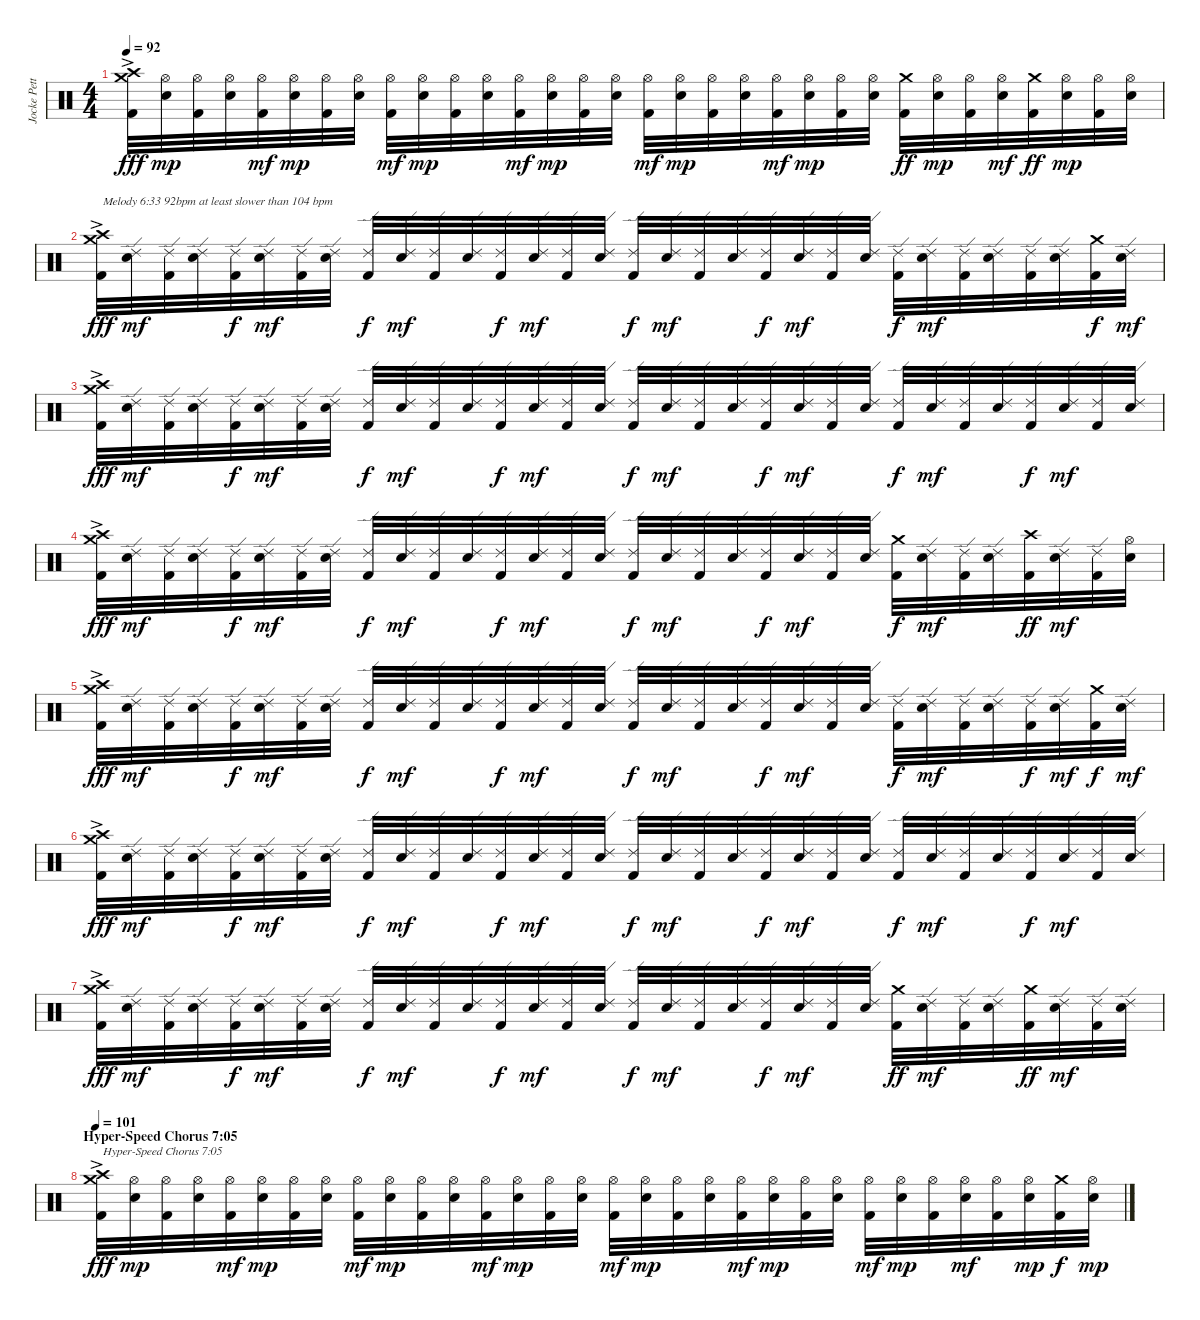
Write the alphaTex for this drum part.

\track ("Jocke Pettersson" "Jocke Pett") {instrument percussion}
\staff {score}
\articulation defaults
\ts (4 4)
\tempo 92
\clef neutral
\ks c
("Kick (hit) 2" "Crash high (hit)"{ac} "Crash medium (hit)"{ac}).32{dy fff} ("Electric Snare (hit)" "Hi-Hat (open)").32{dy mp} ("Kick (hit) 2" "Hi-Hat (open)").32 ("Electric Snare (hit)" "Hi-Hat (open)").32 ("Kick (hit) 2" "Hi-Hat (open)").32{dy mf} ("Electric Snare (hit)" "Hi-Hat (open)").32{dy mp} ("Kick (hit) 2" "Hi-Hat (open)").32 ("Electric Snare (hit)" "Hi-Hat (open)").32 ("Kick (hit) 2" "Hi-Hat (open)").32{dy mf} ("Electric Snare (hit)" "Hi-Hat (open)").32{dy mp} ("Kick (hit) 2" "Hi-Hat (open)").32 ("Electric Snare (hit)" "Hi-Hat (open)").32 ("Kick (hit) 2" "Hi-Hat (open)").32{dy mf} ("Electric Snare (hit)" "Hi-Hat (open)").32{dy mp} ("Kick (hit) 2" "Hi-Hat (open)").32 ("Electric Snare (hit)" "Hi-Hat (open)").32 ("Kick (hit) 2" "Hi-Hat (open)").32{dy mf} ("Electric Snare (hit)" "Hi-Hat (open)").32{dy mp} ("Kick (hit) 2" "Hi-Hat (open)").32 ("Electric Snare (hit)" "Hi-Hat (open)").32 ("Kick (hit) 2" "Hi-Hat (open)").32{dy mf} ("Electric Snare (hit)" "Hi-Hat (open)").32{dy mp} ("Kick (hit) 2" "Hi-Hat (open)").32 ("Electric Snare (hit)" "Hi-Hat (open)").32 ("Kick (hit) 2" "Crash medium (hit)").32{dy ff} ("Electric Snare (hit)" "Hi-Hat (open)").32{dy mp} ("Kick (hit) 2" "Hi-Hat (open)").32 ("Electric Snare (hit)" "Hi-Hat (open)").32{dy mf} ("Kick (hit) 2" "Crash medium (hit)").32{dy ff} ("Electric Snare (hit)" "Hi-Hat (open)").32{dy mp} ("Kick (hit) 2" "Hi-Hat (open)").32 ("Electric Snare (hit)" "Hi-Hat (open)").32 |
("Kick (hit) 2" "Crash high (hit)"{ac} "Crash medium (hit)"{ac}).32{txt "Melody 6:33 92bpm at least slower than 104 bpm" dy fff} ("Electric Snare (hit)" "Ride (edge) 2").32{dy mf} ("Kick (hit) 2" "Ride (edge) 2").32 ("Electric Snare (hit)" "Ride (edge) 2").32 ("Kick (hit) 2" "Ride (edge) 2").32{dy f} ("Electric Snare (hit)" "Ride (edge) 2").32{dy mf} ("Kick (hit) 2" "Ride (edge) 2").32 ("Electric Snare (hit)" "Ride (edge) 2").32 ("Kick (hit) 2" "Ride (edge) 2").32{dy f} ("Electric Snare (hit)" "Ride (edge) 2").32{dy mf} ("Kick (hit) 2" "Ride (edge) 2").32 ("Electric Snare (hit)" "Ride (edge) 2").32 ("Kick (hit) 2" "Ride (edge) 2").32{dy f} ("Electric Snare (hit)" "Ride (edge) 2").32{dy mf} ("Kick (hit) 2" "Ride (edge) 2").32 ("Electric Snare (hit)" "Ride (edge) 2").32 ("Kick (hit) 2" "Ride (edge) 2").32{dy f} ("Electric Snare (hit)" "Ride (edge) 2").32{dy mf} ("Kick (hit) 2" "Ride (edge) 2").32 ("Electric Snare (hit)" "Ride (edge) 2").32 ("Kick (hit) 2" "Ride (edge) 2").32{dy f} ("Electric Snare (hit)" "Ride (edge) 2").32{dy mf} ("Kick (hit) 2" "Ride (edge) 2").32 ("Electric Snare (hit)" "Ride (edge) 2").32 ("Kick (hit) 2" "Ride (edge) 2").32{dy f} ("Electric Snare (hit)" "Ride (edge) 2").32{dy mf} ("Kick (hit) 2" "Ride (edge) 2").32 ("Electric Snare (hit)" "Ride (edge) 2").32 ("Kick (hit) 2" "Ride (edge) 2").32 ("Electric Snare (hit)" "Ride (edge) 2").32 ("Kick (hit) 2" "Crash medium (hit)").32{dy f} ("Electric Snare (hit)" "Ride (edge) 2").32{dy mf} |
("Kick (hit) 2" "Crash high (hit)"{ac} "Crash medium (hit)"{ac}).32{dy fff} ("Electric Snare (hit)" "Ride (edge) 2").32{dy mf} ("Kick (hit) 2" "Ride (edge) 2").32 ("Electric Snare (hit)" "Ride (edge) 2").32 ("Kick (hit) 2" "Ride (edge) 2").32{dy f} ("Electric Snare (hit)" "Ride (edge) 2").32{dy mf} ("Kick (hit) 2" "Ride (edge) 2").32 ("Electric Snare (hit)" "Ride (edge) 2").32 ("Kick (hit) 2" "Ride (edge) 2").32{dy f} ("Electric Snare (hit)" "Ride (edge) 2").32{dy mf} ("Kick (hit) 2" "Ride (edge) 2").32 ("Electric Snare (hit)" "Ride (edge) 2").32 ("Kick (hit) 2" "Ride (edge) 2").32{dy f} ("Electric Snare (hit)" "Ride (edge) 2").32{dy mf} ("Kick (hit) 2" "Ride (edge) 2").32 ("Electric Snare (hit)" "Ride (edge) 2").32 ("Kick (hit) 2" "Ride (edge) 2").32{dy f} ("Electric Snare (hit)" "Ride (edge) 2").32{dy mf} ("Kick (hit) 2" "Ride (edge) 2").32 ("Electric Snare (hit)" "Ride (edge) 2").32 ("Kick (hit) 2" "Ride (edge) 2").32{dy f} ("Electric Snare (hit)" "Ride (edge) 2").32{dy mf} ("Kick (hit) 2" "Ride (edge) 2").32 ("Electric Snare (hit)" "Ride (edge) 2").32 ("Kick (hit) 2" "Ride (edge) 2").32{dy f} ("Electric Snare (hit)" "Ride (edge) 2").32{dy mf} ("Kick (hit) 2" "Ride (edge) 2").32 ("Electric Snare (hit)" "Ride (edge) 2").32 ("Kick (hit) 2" "Ride (edge) 2").32{dy f} ("Electric Snare (hit)" "Ride (edge) 2").32{dy mf} ("Kick (hit) 2" "Ride (edge) 2").32 ("Electric Snare (hit)" "Ride (edge) 2").32 |
("Kick (hit) 2" "Crash high (hit)"{ac} "Crash medium (hit)"{ac}).32{dy fff} ("Electric Snare (hit)" "Ride (edge) 2").32{dy mf} ("Kick (hit) 2" "Ride (edge) 2").32 ("Electric Snare (hit)" "Ride (edge) 2").32 ("Kick (hit) 2" "Ride (edge) 2").32{dy f} ("Electric Snare (hit)" "Ride (edge) 2").32{dy mf} ("Kick (hit) 2" "Ride (edge) 2").32 ("Electric Snare (hit)" "Ride (edge) 2").32 ("Kick (hit) 2" "Ride (edge) 2").32{dy f} ("Electric Snare (hit)" "Ride (edge) 2").32{dy mf} ("Kick (hit) 2" "Ride (edge) 2").32 ("Electric Snare (hit)" "Ride (edge) 2").32 ("Kick (hit) 2" "Ride (edge) 2").32{dy f} ("Electric Snare (hit)" "Ride (edge) 2").32{dy mf} ("Kick (hit) 2" "Ride (edge) 2").32 ("Electric Snare (hit)" "Ride (edge) 2").32 ("Kick (hit) 2" "Ride (edge) 2").32{dy f} ("Electric Snare (hit)" "Ride (edge) 2").32{dy mf} ("Kick (hit) 2" "Ride (edge) 2").32 ("Electric Snare (hit)" "Ride (edge) 2").32 ("Kick (hit) 2" "Ride (edge) 2").32{dy f} ("Electric Snare (hit)" "Ride (edge) 2").32{dy mf} ("Kick (hit) 2" "Ride (edge) 2").32 ("Electric Snare (hit)" "Ride (edge) 2").32 ("Kick (hit) 2" "Crash medium (hit)").32{dy f} ("Electric Snare (hit)" "Ride (edge) 2").32{dy mf} ("Kick (hit) 2" "Ride (edge) 2").32 ("Electric Snare (hit)" "Ride (edge) 2").32 ("Kick (hit) 2" "Crash high (hit)").32{dy ff} ("Electric Snare (hit)" "Ride (edge) 2").32{dy mf} ("Kick (hit) 2" "Ride (edge) 2").32 ("Electric Snare (hit)" "Hi-Hat (open)").32 |
("Kick (hit) 2" "Crash high (hit)"{ac} "Crash medium (hit)"{ac}).32{dy fff} ("Electric Snare (hit)" "Ride (edge) 2").32{dy mf} ("Kick (hit) 2" "Ride (edge) 2").32 ("Electric Snare (hit)" "Ride (edge) 2").32 ("Kick (hit) 2" "Ride (edge) 2").32{dy f} ("Electric Snare (hit)" "Ride (edge) 2").32{dy mf} ("Kick (hit) 2" "Ride (edge) 2").32 ("Electric Snare (hit)" "Ride (edge) 2").32 ("Kick (hit) 2" "Ride (edge) 2").32{dy f} ("Electric Snare (hit)" "Ride (edge) 2").32{dy mf} ("Kick (hit) 2" "Ride (edge) 2").32 ("Electric Snare (hit)" "Ride (edge) 2").32 ("Kick (hit) 2" "Ride (edge) 2").32{dy f} ("Electric Snare (hit)" "Ride (edge) 2").32{dy mf} ("Kick (hit) 2" "Ride (edge) 2").32 ("Electric Snare (hit)" "Ride (edge) 2").32 ("Kick (hit) 2" "Ride (edge) 2").32{dy f} ("Electric Snare (hit)" "Ride (edge) 2").32{dy mf} ("Kick (hit) 2" "Ride (edge) 2").32 ("Electric Snare (hit)" "Ride (edge) 2").32 ("Kick (hit) 2" "Ride (edge) 2").32{dy f} ("Electric Snare (hit)" "Ride (edge) 2").32{dy mf} ("Kick (hit) 2" "Ride (edge) 2").32 ("Electric Snare (hit)" "Ride (edge) 2").32 ("Kick (hit) 2" "Ride (edge) 2").32{dy f} ("Electric Snare (hit)" "Ride (edge) 2").32{dy mf} ("Kick (hit) 2" "Ride (edge) 2").32 ("Electric Snare (hit)" "Ride (edge) 2").32 ("Kick (hit) 2" "Ride (edge) 2").32{dy f} ("Electric Snare (hit)" "Ride (edge) 2").32{dy mf} ("Kick (hit) 2" "Crash medium (hit)").32{dy f} ("Electric Snare (hit)" "Ride (edge) 2").32{dy mf} |
("Kick (hit) 2" "Crash high (hit)"{ac} "Crash medium (hit)"{ac}).32{dy fff} ("Electric Snare (hit)" "Ride (edge) 2").32{dy mf} ("Kick (hit) 2" "Ride (edge) 2").32 ("Electric Snare (hit)" "Ride (edge) 2").32 ("Kick (hit) 2" "Ride (edge) 2").32{dy f} ("Electric Snare (hit)" "Ride (edge) 2").32{dy mf} ("Kick (hit) 2" "Ride (edge) 2").32 ("Electric Snare (hit)" "Ride (edge) 2").32 ("Kick (hit) 2" "Ride (edge) 2").32{dy f} ("Electric Snare (hit)" "Ride (edge) 2").32{dy mf} ("Kick (hit) 2" "Ride (edge) 2").32 ("Electric Snare (hit)" "Ride (edge) 2").32 ("Kick (hit) 2" "Ride (edge) 2").32{dy f} ("Electric Snare (hit)" "Ride (edge) 2").32{dy mf} ("Kick (hit) 2" "Ride (edge) 2").32 ("Electric Snare (hit)" "Ride (edge) 2").32 ("Kick (hit) 2" "Ride (edge) 2").32{dy f} ("Electric Snare (hit)" "Ride (edge) 2").32{dy mf} ("Kick (hit) 2" "Ride (edge) 2").32 ("Electric Snare (hit)" "Ride (edge) 2").32 ("Kick (hit) 2" "Ride (edge) 2").32{dy f} ("Electric Snare (hit)" "Ride (edge) 2").32{dy mf} ("Kick (hit) 2" "Ride (edge) 2").32 ("Electric Snare (hit)" "Ride (edge) 2").32 ("Kick (hit) 2" "Ride (edge) 2").32{dy f} ("Electric Snare (hit)" "Ride (edge) 2").32{dy mf} ("Kick (hit) 2" "Ride (edge) 2").32 ("Electric Snare (hit)" "Ride (edge) 2").32 ("Kick (hit) 2" "Ride (edge) 2").32{dy f} ("Electric Snare (hit)" "Ride (edge) 2").32{dy mf} ("Kick (hit) 2" "Ride (edge) 2").32 ("Electric Snare (hit)" "Ride (edge) 2").32 |
("Kick (hit) 2" "Crash high (hit)"{ac} "Crash medium (hit)"{ac}).32{dy fff} ("Electric Snare (hit)" "Ride (edge) 2").32{dy mf} ("Kick (hit) 2" "Ride (edge) 2").32 ("Electric Snare (hit)" "Ride (edge) 2").32 ("Kick (hit) 2" "Ride (edge) 2").32{dy f} ("Electric Snare (hit)" "Ride (edge) 2").32{dy mf} ("Kick (hit) 2" "Ride (edge) 2").32 ("Electric Snare (hit)" "Ride (edge) 2").32 ("Kick (hit) 2" "Ride (edge) 2").32{dy f} ("Electric Snare (hit)" "Ride (edge) 2").32{dy mf} ("Kick (hit) 2" "Ride (edge) 2").32 ("Electric Snare (hit)" "Ride (edge) 2").32 ("Kick (hit) 2" "Ride (edge) 2").32{dy f} ("Electric Snare (hit)" "Ride (edge) 2").32{dy mf} ("Kick (hit) 2" "Ride (edge) 2").32 ("Electric Snare (hit)" "Ride (edge) 2").32 ("Kick (hit) 2" "Ride (edge) 2").32{dy f} ("Electric Snare (hit)" "Ride (edge) 2").32{dy mf} ("Kick (hit) 2" "Ride (edge) 2").32 ("Electric Snare (hit)" "Ride (edge) 2").32 ("Kick (hit) 2" "Ride (edge) 2").32{dy f} ("Electric Snare (hit)" "Ride (edge) 2").32{dy mf} ("Kick (hit) 2" "Ride (edge) 2").32 ("Electric Snare (hit)" "Ride (edge) 2").32 ("Kick (hit) 2" "Crash medium (hit)").32{dy ff} ("Electric Snare (hit)" "Ride (edge) 2").32{dy mf} ("Kick (hit) 2" "Ride (edge) 2").32 ("Electric Snare (hit)" "Ride (edge) 2").32 ("Kick (hit) 2" "Crash medium (hit)").32{dy ff} ("Electric Snare (hit)" "Ride (edge) 2").32{dy mf} ("Kick (hit) 2" "Ride (edge) 2").32 ("Electric Snare (hit)" "Ride (edge) 2").32 |
\section ("" "Hyper-Speed Chorus 7:05")
\tempo 101
("Kick (hit) 2" "Crash high (hit)"{ac} "Crash medium (hit)"{ac}).32{txt "Hyper-Speed Chorus 7:05" dy fff} ("Electric Snare (hit)" "Hi-Hat (open)").32{dy mp} ("Kick (hit) 2" "Hi-Hat (open)").32 ("Electric Snare (hit)" "Hi-Hat (open)").32 ("Kick (hit) 2" "Hi-Hat (open)").32{dy mf} ("Electric Snare (hit)" "Hi-Hat (open)").32{dy mp} ("Kick (hit) 2" "Hi-Hat (open)").32 ("Electric Snare (hit)" "Hi-Hat (open)").32 ("Kick (hit) 2" "Hi-Hat (open)").32{dy mf} ("Electric Snare (hit)" "Hi-Hat (open)").32{dy mp} ("Kick (hit) 2" "Hi-Hat (open)").32 ("Electric Snare (hit)" "Hi-Hat (open)").32 ("Kick (hit) 2" "Hi-Hat (open)").32{dy mf} ("Electric Snare (hit)" "Hi-Hat (open)").32{dy mp} ("Kick (hit) 2" "Hi-Hat (open)").32 ("Electric Snare (hit)" "Hi-Hat (open)").32 ("Kick (hit) 2" "Hi-Hat (open)").32{dy mf} ("Electric Snare (hit)" "Hi-Hat (open)").32{dy mp} ("Kick (hit) 2" "Hi-Hat (open)").32 ("Electric Snare (hit)" "Hi-Hat (open)").32 ("Kick (hit) 2" "Hi-Hat (open)").32{dy mf} ("Electric Snare (hit)" "Hi-Hat (open)").32{dy mp} ("Kick (hit) 2" "Hi-Hat (open)").32 ("Electric Snare (hit)" "Hi-Hat (open)").32 ("Kick (hit) 2" "Hi-Hat (open)").32{dy mf} ("Electric Snare (hit)" "Hi-Hat (open)").32{dy mp} ("Kick (hit) 2" "Hi-Hat (open)").32 ("Electric Snare (hit)" "Hi-Hat (open)").32{dy mf} ("Kick (hit) 2" "Hi-Hat (open)").32 ("Electric Snare (hit)" "Hi-Hat (open)").32{dy mp} ("Kick (hit) 2" "Crash medium (hit)").32{dy f} ("Electric Snare (hit)" "Hi-Hat (open)").32{dy mp}
